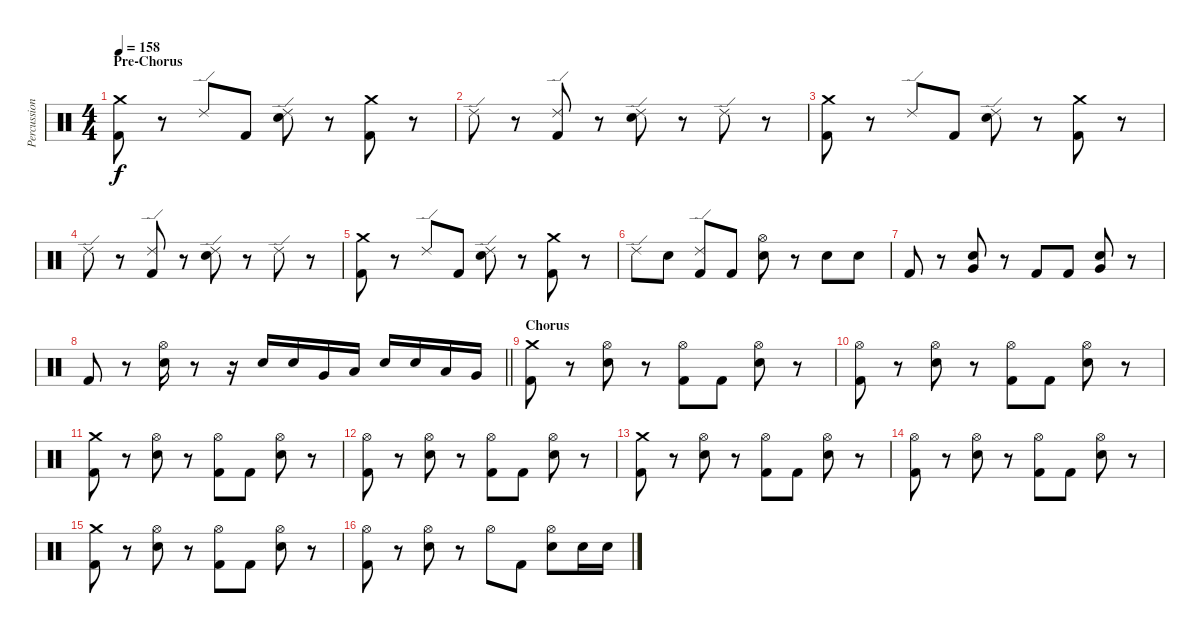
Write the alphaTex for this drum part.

\track ("Percussion" "Percussion") {instrument percussion}
\staff {score}
\articulation defaults
\ts (4 4)
\section ("" "Pre-Chorus")
\tempo 158
\clef neutral
\ks c
("Crash medium (hit)" "Kick (hit) 2").8{dy f} r.8 "Ride (edge) 2".8 "Kick (hit) 2".8 ("Ride (edge) 2" "Electric Snare (hit)").8 r.8 ("Crash medium (hit)" "Kick (hit) 2").8 r.8 |
"Ride (edge) 2".8 r.8 ("Ride (edge) 2" "Kick (hit) 2").8 r.8 ("Ride (edge) 2" "Electric Snare (hit)").8 r.8 "Ride (edge) 2".8 r.8 |
("Crash medium (hit)" "Kick (hit) 2").8 r.8 "Ride (edge) 2".8 "Kick (hit) 2".8 ("Ride (edge) 2" "Electric Snare (hit)").8 r.8 ("Crash medium (hit)" "Kick (hit) 2").8 r.8 |
"Ride (edge) 2".8 r.8 ("Ride (edge) 2" "Kick (hit) 2").8 r.8 ("Ride (edge) 2" "Electric Snare (hit)").8 r.8 "Ride (edge) 2".8 r.8 |
("Crash medium (hit)" "Kick (hit) 2").8 r.8 "Ride (edge) 2".8 "Kick (hit) 2".8 ("Ride (edge) 2" "Electric Snare (hit)").8 r.8 ("Crash medium (hit)" "Kick (hit) 2").8 r.8 |
"Ride (edge) 2".8 "Electric Snare (hit)".8 ("Ride (edge) 2" "Kick (hit) 2").8 "Kick (hit) 2".8 ("Hi-Hat (open)" "Electric Snare (hit)").8 r.8 "Electric Snare (hit)".8 "Electric Snare (hit)".8 |
"Kick (hit) 2".8 r.8 ("Electric Snare (hit)" "Very Low Tom (hit)").8 r.8 "Kick (hit) 2".8 "Kick (hit) 2".8 ("Electric Snare (hit)" "Very Low Tom (hit)").8 r.8 |
\barLineRight lightlight "Kick (hit) 2".8
r.8 ("Hi-Hat (open)" "Electric Snare (hit)").16 r.8 r.16 "Electric Snare (hit)".16 "Electric Snare (hit)".16 "Very Low Tom (hit)".16 "Low Tom (hit)".16 "Electric Snare (hit)".16 "Electric Snare (hit)".16 "Low Tom (hit)".16 "Very Low Tom (hit)".16 |
\section ("" "Chorus")
("Crash medium (hit)" "Kick (hit) 2").8 r.8 ("Hi-Hat (open)" "Electric Snare (hit)").8 r.8 ("Hi-Hat (open)" "Kick (hit) 2").8 "Kick (hit) 2".8 ("Hi-Hat (open)" "Electric Snare (hit)").8 r.8 |
("Hi-Hat (open)" "Kick (hit) 2").8 r.8 ("Hi-Hat (open)" "Electric Snare (hit)").8 r.8 ("Hi-Hat (open)" "Kick (hit) 2").8 "Kick (hit) 2".8 ("Hi-Hat (open)" "Electric Snare (hit)").8 r.8 |
("Crash medium (hit)" "Kick (hit) 2").8 r.8 ("Hi-Hat (open)" "Electric Snare (hit)").8 r.8 ("Hi-Hat (open)" "Kick (hit) 2").8 "Kick (hit) 2".8 ("Hi-Hat (open)" "Electric Snare (hit)").8 r.8 |
("Hi-Hat (open)" "Kick (hit) 2").8 r.8 ("Hi-Hat (open)" "Electric Snare (hit)").8 r.8 ("Hi-Hat (open)" "Kick (hit) 2").8 "Kick (hit) 2".8 ("Hi-Hat (open)" "Electric Snare (hit)").8 r.8 |
("Crash medium (hit)" "Kick (hit) 2").8 r.8 ("Hi-Hat (open)" "Electric Snare (hit)").8 r.8 ("Hi-Hat (open)" "Kick (hit) 2").8 "Kick (hit) 2".8 ("Hi-Hat (open)" "Electric Snare (hit)").8 r.8 |
("Hi-Hat (open)" "Kick (hit) 2").8 r.8 ("Hi-Hat (open)" "Electric Snare (hit)").8 r.8 ("Hi-Hat (open)" "Kick (hit) 2").8 "Kick (hit) 2".8 ("Hi-Hat (open)" "Electric Snare (hit)").8 r.8 |
("Crash medium (hit)" "Kick (hit) 2").8 r.8 ("Hi-Hat (open)" "Electric Snare (hit)").8 r.8 ("Hi-Hat (open)" "Kick (hit) 2").8 "Kick (hit) 2".8 ("Hi-Hat (open)" "Electric Snare (hit)").8 r.8 |
("Hi-Hat (open)" "Kick (hit) 2").8 r.8 ("Hi-Hat (open)" "Electric Snare (hit)").8 r.8 "Hi-Hat (open)".8 "Kick (hit) 2".8 ("Hi-Hat (open)" "Electric Snare (hit)").8 "Electric Snare (hit)".16 "Electric Snare (hit)".16
